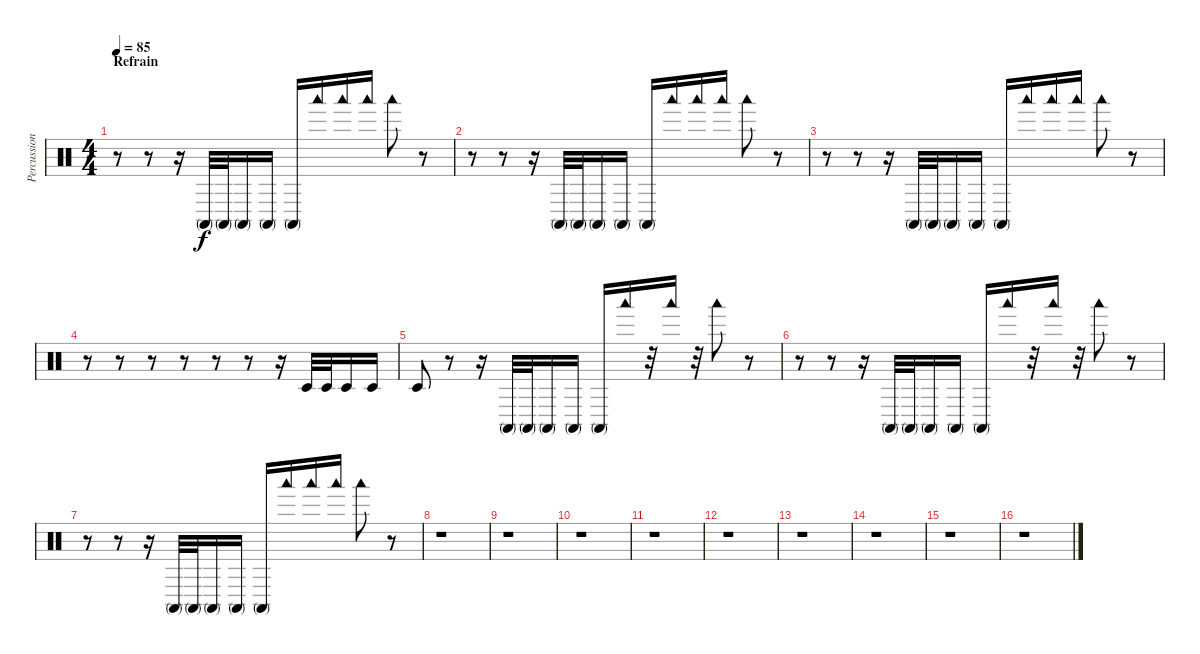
\track ("Percussions" "Percussion") {instrument percussion}
\staff {score}
\articulation defaults
\ts (4 4)
\section ("" "Refrain")
\tempo 85
\clef neutral
\ks c
r.8{dy f} r.8 r.16 "Conga high (mute)".32 "Conga high (mute)".32 "Conga high (mute)".16 "Conga high (mute)".16 "Conga high (mute)".16 "Woodblock low (hit)".16 "Woodblock low (hit)".16 "Woodblock low (hit)".16 "Woodblock low (hit)".8 r.8 |
r.8 r.8 r.16 "Conga high (mute)".32 "Conga high (mute)".32 "Conga high (mute)".16 "Conga high (mute)".16 "Conga high (mute)".16 "Woodblock low (hit)".16 "Woodblock low (hit)".16 "Woodblock low (hit)".16 "Woodblock low (hit)".8 r.8 |
r.8 r.8 r.16 "Conga high (mute)".32 "Conga high (mute)".32 "Conga high (mute)".16 "Conga high (mute)".16 "Conga high (mute)".16 "Woodblock low (hit)".16 "Woodblock low (hit)".16 "Woodblock low (hit)".16 "Woodblock low (hit)".8 r.8 |
r.8 r.8 r.8 r.8 r.8 r.8 r.16 "Timbale low (hit)".32 "Timbale low (hit)".32 "Timbale low (hit)".16 "Timbale low (hit)".16 |
"Timbale low (hit)".8 r.8 r.16 "Conga high (mute)".32 "Conga high (mute)".32 "Conga high (mute)".16 "Conga high (mute)".16 "Conga high (mute)".16 "Woodblock low (hit)".16 r.32 "Woodblock low (hit)".16 r.32 "Woodblock low (hit)".8 r.8 |
r.8 r.8 r.16 "Conga high (mute)".32 "Conga high (mute)".32 "Conga high (mute)".16 "Conga high (mute)".16 "Conga high (mute)".16 "Woodblock low (hit)".16 r.32 "Woodblock low (hit)".16 r.32 "Woodblock low (hit)".8 r.8 |
r.8 r.8 r.16 "Conga high (mute)".32 "Conga high (mute)".32 "Conga high (mute)".16 "Conga high (mute)".16 "Conga high (mute)".16 "Woodblock low (hit)".16 "Woodblock low (hit)".16 "Woodblock low (hit)".16 "Woodblock low (hit)".8 r.8 |
r.1 |
r.1 |
r.1 |
r.1 |
r.1 |
r.1 |
r.1 |
r.1 |
r.1
